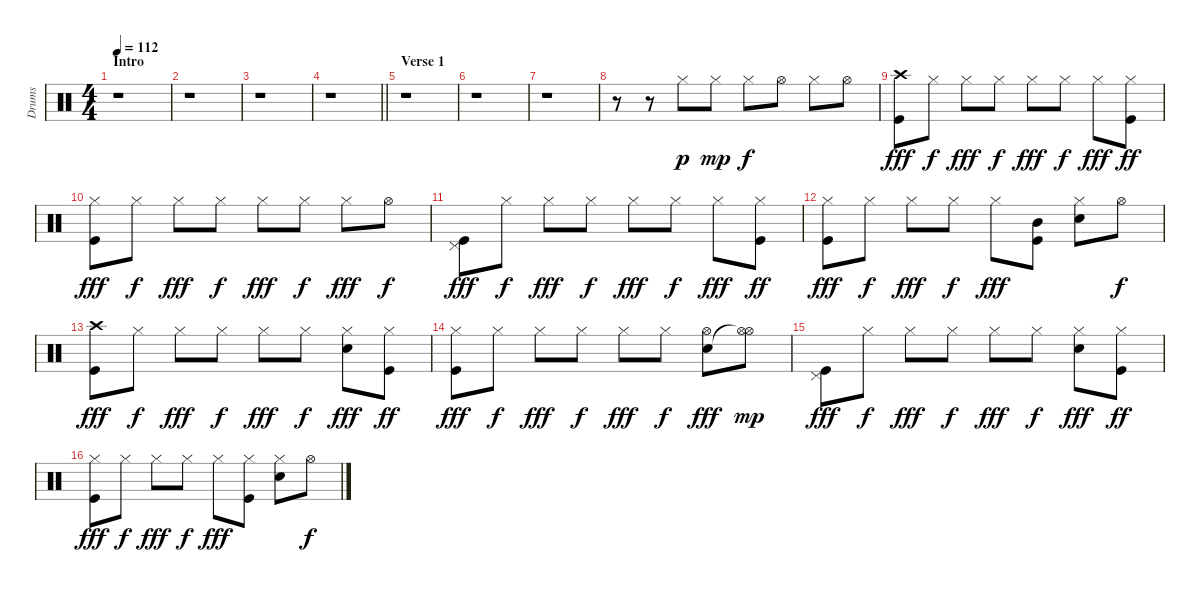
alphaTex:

\track ("Drums" "Drums") {instrument percussion}
\staff {score}
\articulation defaults
\ts (4 4)
\section ("" "Intro")
\tempo 112
\clef neutral
\ks c
r.1{dy p} |
r.1 |
r.1 |
\barLineRight lightlight
r.1 |
\section ("" "Verse 1")
r.1 |
r.1 |
r.1 |
r.8 r.8 "Hi-Hat (closed)".8 "Hi-Hat (closed)".8{dy mp} "Hi-Hat (closed)".8{dy f} "Hi-Hat (open)".8 "Hi-Hat (closed)".8 "Hi-Hat (open)".8 |
("Kick (hit)" "Crash high (hit)").8{dy fff} "Hi-Hat (closed)".8{dy f} "Hi-Hat (closed)".8{dy fff} "Hi-Hat (closed)".8{dy f} "Hi-Hat (closed)".8{dy fff} "Hi-Hat (closed)".8{dy f} "Hi-Hat (closed)".8{dy fff} ("Kick (hit)" "Hi-Hat (closed)").8{dy ff} |
("Kick (hit)" "Hi-Hat (closed)").8{dy fff} "Hi-Hat (closed)".8{dy f} "Hi-Hat (closed)".8{dy fff} "Hi-Hat (closed)".8{dy f} "Hi-Hat (closed)".8{dy fff} "Hi-Hat (closed)".8{dy f} "Hi-Hat (closed)".8{dy fff} "Hi-Hat (open)".8{dy f} |
("Kick (hit)" "Pedal Hi-Hat (hit)").8{dy fff} "Hi-Hat (closed)".8{dy f} "Hi-Hat (closed)".8{dy fff} "Hi-Hat (closed)".8{dy f} "Hi-Hat (closed)".8{dy fff} "Hi-Hat (closed)".8{dy f} "Hi-Hat (closed)".8{dy fff} ("Kick (hit)" "Hi-Hat (closed)").8{dy ff} |
("Kick (hit)" "Hi-Hat (closed)").8{dy fff} "Hi-Hat (closed)".8{dy f} "Hi-Hat (closed)".8{dy fff} "Hi-Hat (closed)".8{dy f} "Hi-Hat (closed)".8{dy fff} ("Kick (hit)" "Mid Tom (hit)").8 ("Snare (hit) 2" "Hi-Hat (closed)").8 "Hi-Hat (open)".8{dy f} |
("Kick (hit)" "Crash high (hit)").8{dy fff} "Hi-Hat (closed)".8{dy f} "Hi-Hat (closed)".8{dy fff} "Hi-Hat (closed)".8{dy f} "Hi-Hat (closed)".8{dy fff} "Hi-Hat (closed)".8{dy f} ("Snare (hit) 2" "Hi-Hat (closed)").8{dy fff} ("Kick (hit)" "Hi-Hat (closed)").8{dy ff} |
("Kick (hit)" "Hi-Hat (closed)").8{dy fff} "Hi-Hat (closed)".8{dy f} "Hi-Hat (closed)".8{dy fff} "Hi-Hat (closed)".8{dy f} "Hi-Hat (closed)".8{dy fff} "Hi-Hat (closed)".8{dy f} ("Snare (hit) 2" "Hi-Hat (open)").8{dy fff} ("Hi-Hat (open)"{t} "Hi-Hat (open)").8{dy mp} |
("Kick (hit)" "Pedal Hi-Hat (hit)").8{dy fff} "Hi-Hat (closed)".8{dy f} "Hi-Hat (closed)".8{dy fff} "Hi-Hat (closed)".8{dy f} "Hi-Hat (closed)".8{dy fff} "Hi-Hat (closed)".8{dy f} ("Snare (hit) 2" "Hi-Hat (closed)").8{dy fff} ("Kick (hit)" "Hi-Hat (closed)").8{dy ff} |
("Kick (hit)" "Hi-Hat (closed)").8{dy fff} "Hi-Hat (closed)".8{dy f} "Hi-Hat (closed)".8{dy fff} "Hi-Hat (closed)".8{dy f} "Hi-Hat (closed)".8{dy fff} ("Kick (hit)" "Hi-Hat (closed)").8 ("Snare (hit) 2" "Hi-Hat (closed)").8 "Hi-Hat (open)".8{dy f}
